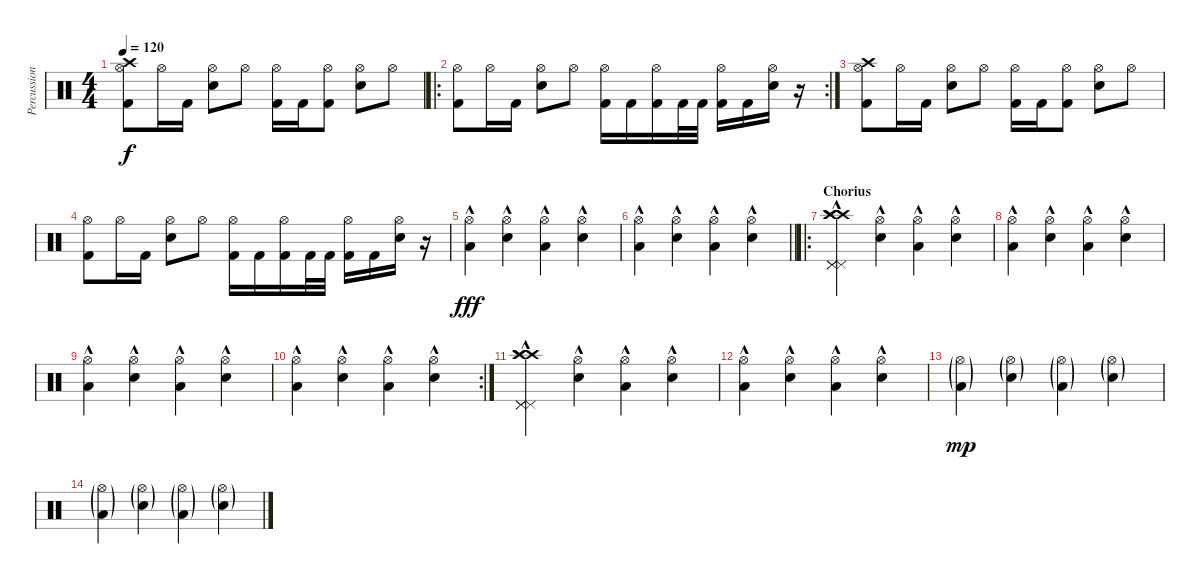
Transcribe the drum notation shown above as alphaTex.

\track ("Percussion" "Percussion") {instrument percussion}
\staff {score}
\articulation defaults
\ts (4 4)
\tempo 120
\clef neutral
\ks c
("Crash high (hit)" "Hi-Hat (open)" "Kick (hit) 2").8{dy f} "Hi-Hat (open)".16 "Kick (hit) 2".16 ("Hi-Hat (open)" "Electric Snare (hit)").8 "Hi-Hat (open)".8 ("Hi-Hat (open)" "Kick (hit) 2").16 "Kick (hit) 2".16 ("Hi-Hat (open)" "Kick (hit) 2").8 ("Hi-Hat (open)" "Electric Snare (hit)").8 "Hi-Hat (open)".8 |
\ro
\rc 2
("Hi-Hat (open)" "Kick (hit) 2").8 "Hi-Hat (open)".16 "Kick (hit) 2".16 ("Hi-Hat (open)" "Electric Snare (hit)").8 "Hi-Hat (open)".8 ("Hi-Hat (open)" "Kick (hit) 2").16 "Kick (hit) 2".16 ("Hi-Hat (open)" "Kick (hit) 2").16 "Kick (hit) 2".32 "Kick (hit) 2".32 ("Hi-Hat (open)" "Kick (hit) 2").16 "Kick (hit) 2".16 ("Hi-Hat (open)" "Electric Snare (hit)").16 r.16 |
("Crash high (hit)" "Hi-Hat (open)" "Kick (hit) 2").8 "Hi-Hat (open)".16 "Kick (hit) 2".16 ("Hi-Hat (open)" "Electric Snare (hit)").8 "Hi-Hat (open)".8 ("Hi-Hat (open)" "Kick (hit) 2").16 "Kick (hit) 2".16 ("Hi-Hat (open)" "Kick (hit) 2").8 ("Hi-Hat (open)" "Electric Snare (hit)").8 "Hi-Hat (open)".8 |
("Hi-Hat (open)" "Kick (hit) 2").8 "Hi-Hat (open)".16 "Kick (hit) 2".16 ("Hi-Hat (open)" "Electric Snare (hit)").8 "Hi-Hat (open)".8 ("Hi-Hat (open)" "Kick (hit) 2").16 "Kick (hit) 2".16 ("Hi-Hat (open)" "Kick (hit) 2").16 "Kick (hit) 2".32 "Kick (hit) 2".32 ("Hi-Hat (open)" "Kick (hit) 2").16 "Kick (hit) 2".16 ("Hi-Hat (open)" "Electric Snare (hit)").16 r.16 |
("Hi-Hat (open)" "Low Floor Tom (hit)"{hac}).4{dy fff} ("Hi-Hat (open)" "Electric Snare (hit)"{hac}).4 ("Hi-Hat (open)" "Low Floor Tom (hit)"{hac}).4 ("Hi-Hat (open)" "Electric Snare (hit)"{hac}).4 |
\barLineRight lightlight
("Hi-Hat (open)" "Low Floor Tom (hit)"{hac}).4 ("Hi-Hat (open)" "Electric Snare (hit)"{hac}).4 ("Hi-Hat (open)" "Low Floor Tom (hit)"{hac}).4 ("Hi-Hat (open)" "Electric Snare (hit)"{hac}).4 |
\ro
\section ("" "Chorius")
("Pedal Hi-Hat (hit)" "Pedal Hi-Hat (hit)" "Pedal Hi-Hat (hit)"{hac} "Crash high (hit)" "Crash high (hit)" "Crash high (hit)"{hac}).4 ("Hi-Hat (open)" "Electric Snare (hit)"{hac}).4 ("Hi-Hat (open)" "Low Floor Tom (hit)"{hac}).4 ("Hi-Hat (open)" "Electric Snare (hit)"{hac}).4 |
("Hi-Hat (open)" "Low Floor Tom (hit)"{hac}).4 ("Hi-Hat (open)" "Electric Snare (hit)"{hac}).4 ("Hi-Hat (open)" "Low Floor Tom (hit)"{hac}).4 ("Hi-Hat (open)" "Electric Snare (hit)"{hac}).4 |
("Hi-Hat (open)" "Low Floor Tom (hit)"{hac}).4 ("Hi-Hat (open)" "Electric Snare (hit)"{hac}).4 ("Hi-Hat (open)" "Low Floor Tom (hit)"{hac}).4 ("Hi-Hat (open)" "Electric Snare (hit)"{hac}).4 |
\rc 2
("Hi-Hat (open)" "Low Floor Tom (hit)"{hac}).4 ("Hi-Hat (open)" "Electric Snare (hit)"{hac}).4 ("Hi-Hat (open)" "Low Floor Tom (hit)"{hac}).4 ("Hi-Hat (open)" "Electric Snare (hit)"{hac}).4 |
("Pedal Hi-Hat (hit)" "Pedal Hi-Hat (hit)" "Pedal Hi-Hat (hit)"{hac} "Crash high (hit)" "Crash high (hit)" "Crash high (hit)"{hac}).4 ("Hi-Hat (open)" "Electric Snare (hit)"{hac}).4 ("Hi-Hat (open)" "Low Floor Tom (hit)"{hac}).4 ("Hi-Hat (open)" "Electric Snare (hit)"{hac}).4 |
("Hi-Hat (open)" "Low Floor Tom (hit)"{hac}).4 ("Hi-Hat (open)" "Electric Snare (hit)"{hac}).4 ("Hi-Hat (open)" "Low Floor Tom (hit)"{hac}).4 ("Hi-Hat (open)" "Electric Snare (hit)"{hac}).4 |
("Hi-Hat (open)"{g} "Low Floor Tom (hit)"{g}).4{dy mp} ("Hi-Hat (open)"{g} "Electric Snare (hit)"{g}).4 ("Hi-Hat (open)"{g} "Low Floor Tom (hit)"{g}).4 ("Hi-Hat (open)"{g} "Electric Snare (hit)"{g}).4 |
("Hi-Hat (open)"{g} "Low Floor Tom (hit)"{g}).4 ("Hi-Hat (open)"{g} "Electric Snare (hit)"{g}).4 ("Hi-Hat (open)"{g} "Low Floor Tom (hit)"{g}).4 ("Hi-Hat (open)"{g} "Electric Snare (hit)"{g}).4
